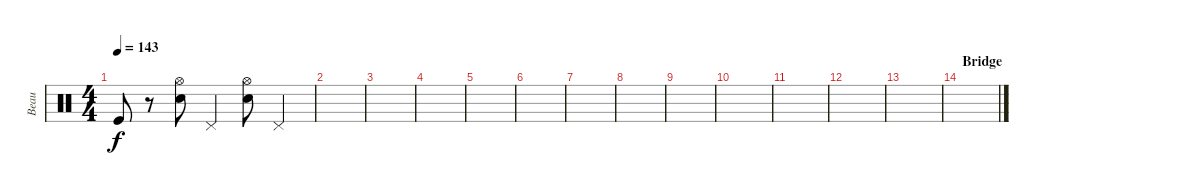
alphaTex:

\track ("Beau" "Beau") {instrument percussion}
\staff {score}
\articulation defaults
\ts (4 4)
\tempo 143
\clef neutral
\ks c "Kick (hit)".8{dy f}
r.8 ("Snare (hit) 2" "Hi-Hat (open)").8 "Pedal Hi-Hat (hit)".4 ("Snare (hit) 2" "Hi-Hat (open)").8 "Pedal Hi-Hat (hit)".4 |
|
|
|
|
|
|
|
|
|
|
|
|
\section ("" "Bridge")
